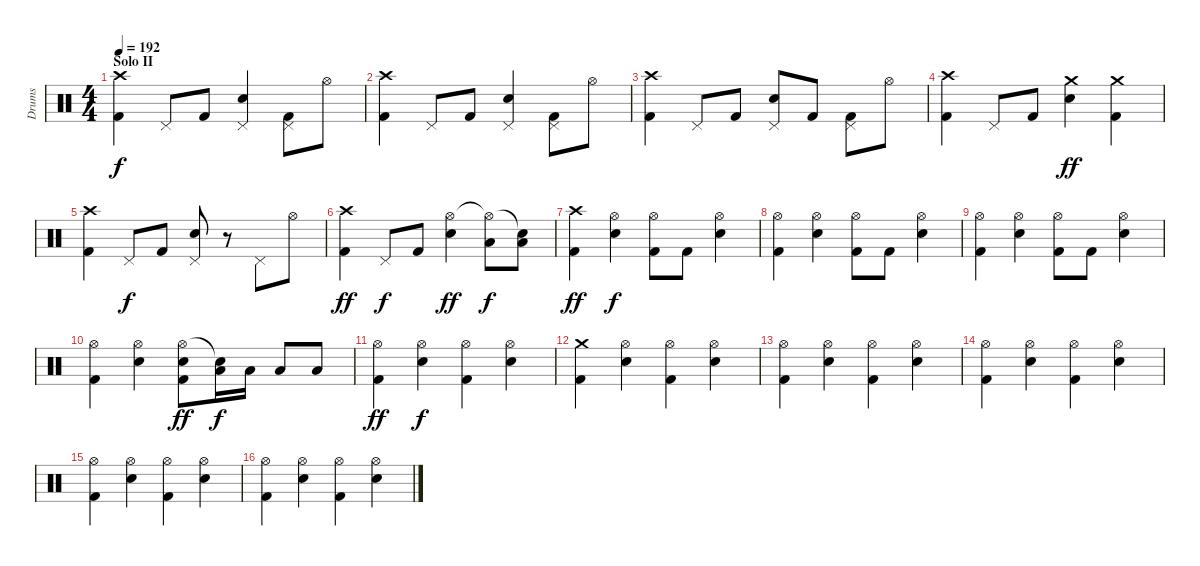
\track ("Drums" "Drums") {instrument percussion}
\staff {score}
\articulation defaults
\ts (4 4)
\section ("" "Solo II")
\tempo 192
\clef neutral
\ks c
("Crash high (hit)" "Kick (hit) 2").4{dy f} "Pedal Hi-Hat (hit)".8 "Kick (hit) 2".8 ("Pedal Hi-Hat (hit)" "Electric Snare (hit)").4 ("Pedal Hi-Hat (hit)" "Kick (hit) 2").8 "Hi-Hat (open)".8 |
("Crash high (hit)" "Kick (hit) 2").4 "Pedal Hi-Hat (hit)".8 "Kick (hit) 2".8 ("Pedal Hi-Hat (hit)" "Electric Snare (hit)").4 ("Pedal Hi-Hat (hit)" "Kick (hit) 2").8 "Hi-Hat (open)".8 |
("Crash high (hit)" "Kick (hit) 2").4 "Pedal Hi-Hat (hit)".8 "Kick (hit) 2".8 ("Pedal Hi-Hat (hit)" "Electric Snare (hit)").8 "Kick (hit) 2".8 ("Pedal Hi-Hat (hit)" "Kick (hit) 2").8 "Hi-Hat (open)".8 |
("Crash high (hit)" "Kick (hit) 2").4 "Pedal Hi-Hat (hit)".8 "Kick (hit) 2".8 ("Crash medium (hit)" "Electric Snare (hit)").4{dy ff} ("Crash medium (hit)" "Kick (hit) 2").4 |
("Crash high (hit)" "Kick (hit) 2").4 "Pedal Hi-Hat (hit)".8{dy f} "Kick (hit) 2".8 ("Pedal Hi-Hat (hit)" "Electric Snare (hit)").8 r.8 "Pedal Hi-Hat (hit)".8 "Hi-Hat (open)".8 |
("Crash high (hit)" "Kick (hit) 2").4{dy ff} "Pedal Hi-Hat (hit)".8{dy f} "Kick (hit) 2".8 ("Hi-Hat (open)" "Electric Snare (hit)").4{dy ff} ("Hi-Hat (open)"{t} "Low Tom (hit)").8{dy f} ("Snare (hit)"{t} "Low Tom (hit)").8 |
("Crash high (hit)" "Kick (hit) 2").4{dy ff} ("Hi-Hat (open)" "Electric Snare (hit)").4{dy f} ("Hi-Hat (open)" "Kick (hit) 2").8 "Kick (hit) 2".8 ("Hi-Hat (open)" "Electric Snare (hit)").4 |
("Hi-Hat (open)" "Kick (hit) 2").4 ("Hi-Hat (open)" "Electric Snare (hit)").4 ("Hi-Hat (open)" "Kick (hit) 2").8 "Kick (hit) 2".8 ("Hi-Hat (open)" "Electric Snare (hit)").4 |
("Hi-Hat (open)" "Kick (hit) 2").4 ("Hi-Hat (open)" "Electric Snare (hit)").4 ("Hi-Hat (open)" "Kick (hit) 2").8 "Kick (hit) 2".8 ("Hi-Hat (open)" "Electric Snare (hit)").4 |
("Hi-Hat (open)" "Kick (hit) 2").4 ("Hi-Hat (open)" "Electric Snare (hit)").4 ("Hi-Hat (open)" "Electric Snare (hit)" "Kick (hit) 2").8{dy ff} ("Snare (hit)"{t} "Low Tom (hit)").16{dy f} "Low Tom (hit)".16 "Low Tom (hit)".8 "Low Tom (hit)".8 |
("Hi-Hat (open)" "Kick (hit) 2").4{dy ff} ("Hi-Hat (open)" "Electric Snare (hit)").4{dy f} ("Hi-Hat (open)" "Kick (hit) 2").4 ("Hi-Hat (open)" "Electric Snare (hit)").4 |
("Crash medium (hit)" "Kick (hit) 2").4 ("Hi-Hat (open)" "Electric Snare (hit)").4 ("Hi-Hat (open)" "Kick (hit) 2").4 ("Hi-Hat (open)" "Electric Snare (hit)").4 |
("Hi-Hat (open)" "Kick (hit) 2").4 ("Hi-Hat (open)" "Electric Snare (hit)").4 ("Hi-Hat (open)" "Kick (hit) 2").4 ("Hi-Hat (open)" "Electric Snare (hit)").4 |
("Hi-Hat (open)" "Kick (hit) 2").4 ("Hi-Hat (open)" "Electric Snare (hit)").4 ("Hi-Hat (open)" "Kick (hit) 2").4 ("Hi-Hat (open)" "Electric Snare (hit)").4 |
("Hi-Hat (open)" "Kick (hit) 2").4 ("Hi-Hat (open)" "Electric Snare (hit)").4 ("Hi-Hat (open)" "Kick (hit) 2").4 ("Hi-Hat (open)" "Electric Snare (hit)").4 |
("Hi-Hat (open)" "Kick (hit) 2").4 ("Hi-Hat (open)" "Electric Snare (hit)").4 ("Hi-Hat (open)" "Kick (hit) 2").4 ("Hi-Hat (open)" "Electric Snare (hit)").4
